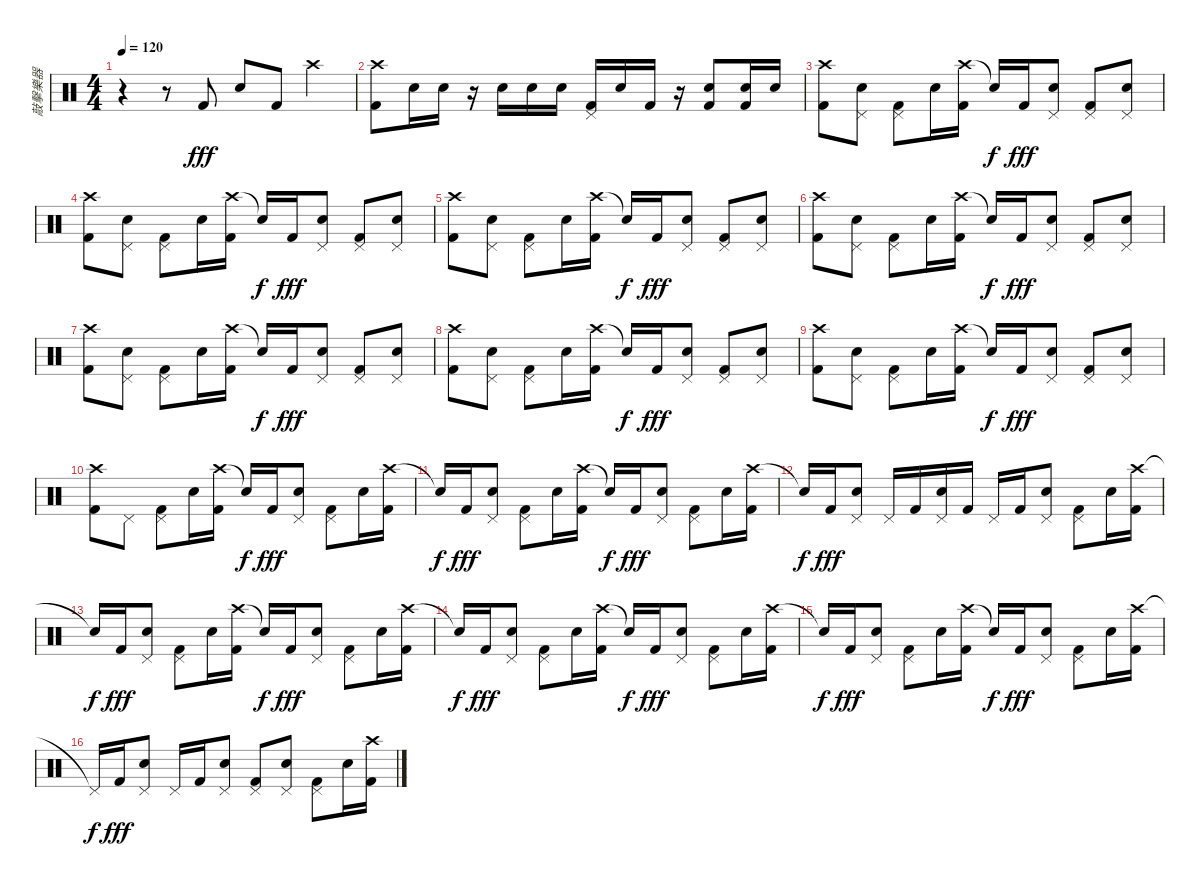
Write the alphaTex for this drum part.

\track ("敲擊樂器" "敲擊樂器") {instrument percussion}
\staff {score}
\articulation defaults
\ts (4 4)
\tempo 120
\clef neutral
\ks c
r.4{dy fff} r.8 "Kick (hit) 2".8 "Snare (hit) 2".8 "Kick (hit) 2".8 "Crash high (hit)".4 |
("Crash high (hit)" "Kick (hit) 2").8 "Snare (hit) 2".16 "Snare (hit) 2".16 r.16 "Snare (hit) 2".16 "Snare (hit) 2".16 "Snare (hit) 2".16 ("Pedal Hi-Hat (hit)" "Kick (hit) 2").16 "Snare (hit) 2".16 "Kick (hit) 2".16 r.16 ("Snare (hit) 2" "Kick (hit) 2").8 ("Snare (hit) 2" "Kick (hit) 2").16 "Snare (hit) 2".16 |
("Crash high (hit)" "Kick (hit) 2").8 ("Pedal Hi-Hat (hit)" "Snare (hit) 2").8 ("Pedal Hi-Hat (hit)" "Kick (hit) 2").8 "Snare (hit) 2".16 ("Crash high (hit)" "Kick (hit) 2").16 "Snare (hit)"{t}.16{dy f} "Kick (hit) 2".16{dy fff} ("Pedal Hi-Hat (hit)" "Snare (hit) 2").8 ("Pedal Hi-Hat (hit)" "Kick (hit) 2").8 ("Pedal Hi-Hat (hit)" "Snare (hit) 2").8 |
("Crash high (hit)" "Kick (hit) 2").8 ("Pedal Hi-Hat (hit)" "Snare (hit) 2").8 ("Pedal Hi-Hat (hit)" "Kick (hit) 2").8 "Snare (hit) 2".16 ("Crash high (hit)" "Kick (hit) 2").16 "Snare (hit)"{t}.16{dy f} "Kick (hit) 2".16{dy fff} ("Pedal Hi-Hat (hit)" "Snare (hit) 2").8 ("Pedal Hi-Hat (hit)" "Kick (hit) 2").8 ("Pedal Hi-Hat (hit)" "Snare (hit) 2").8 |
("Crash high (hit)" "Kick (hit) 2").8 ("Pedal Hi-Hat (hit)" "Snare (hit) 2").8 ("Pedal Hi-Hat (hit)" "Kick (hit) 2").8 "Snare (hit) 2".16 ("Crash high (hit)" "Kick (hit) 2").16 "Snare (hit)"{t}.16{dy f} "Kick (hit) 2".16{dy fff} ("Pedal Hi-Hat (hit)" "Snare (hit) 2").8 ("Pedal Hi-Hat (hit)" "Kick (hit) 2").8 ("Pedal Hi-Hat (hit)" "Snare (hit) 2").8 |
("Crash high (hit)" "Kick (hit) 2").8 ("Pedal Hi-Hat (hit)" "Snare (hit) 2").8 ("Pedal Hi-Hat (hit)" "Kick (hit) 2").8 "Snare (hit) 2".16 ("Crash high (hit)" "Kick (hit) 2").16 "Snare (hit)"{t}.16{dy f} "Kick (hit) 2".16{dy fff} ("Pedal Hi-Hat (hit)" "Snare (hit) 2").8 ("Pedal Hi-Hat (hit)" "Kick (hit) 2").8 ("Pedal Hi-Hat (hit)" "Snare (hit) 2").8 |
("Crash high (hit)" "Kick (hit) 2").8 ("Pedal Hi-Hat (hit)" "Snare (hit) 2").8 ("Pedal Hi-Hat (hit)" "Kick (hit) 2").8 "Snare (hit) 2".16 ("Crash high (hit)" "Kick (hit) 2").16 "Snare (hit)"{t}.16{dy f} "Kick (hit) 2".16{dy fff} ("Pedal Hi-Hat (hit)" "Snare (hit) 2").8 ("Pedal Hi-Hat (hit)" "Kick (hit) 2").8 ("Pedal Hi-Hat (hit)" "Snare (hit) 2").8 |
("Crash high (hit)" "Kick (hit) 2").8 ("Pedal Hi-Hat (hit)" "Snare (hit) 2").8 ("Pedal Hi-Hat (hit)" "Kick (hit) 2").8 "Snare (hit) 2".16 ("Crash high (hit)" "Kick (hit) 2").16 "Snare (hit)"{t}.16{dy f} "Kick (hit) 2".16{dy fff} ("Pedal Hi-Hat (hit)" "Snare (hit) 2").8 ("Pedal Hi-Hat (hit)" "Kick (hit) 2").8 ("Pedal Hi-Hat (hit)" "Snare (hit) 2").8 |
("Crash high (hit)" "Kick (hit) 2").8 ("Pedal Hi-Hat (hit)" "Snare (hit) 2").8 ("Pedal Hi-Hat (hit)" "Kick (hit) 2").8 "Snare (hit) 2".16 ("Crash high (hit)" "Kick (hit) 2").16 "Snare (hit)"{t}.16{dy f} "Kick (hit) 2".16{dy fff} ("Pedal Hi-Hat (hit)" "Snare (hit) 2").8 ("Pedal Hi-Hat (hit)" "Kick (hit) 2").8 ("Pedal Hi-Hat (hit)" "Snare (hit) 2").8 |
("Crash high (hit)" "Kick (hit) 2").8 "Pedal Hi-Hat (hit)".8 ("Pedal Hi-Hat (hit)" "Kick (hit) 2").8 "Snare (hit) 2".16 ("Crash high (hit)" "Kick (hit) 2").16 "Snare (hit)"{t}.16{dy f} "Kick (hit) 2".16{dy fff} ("Pedal Hi-Hat (hit)" "Snare (hit) 2").8 ("Pedal Hi-Hat (hit)" "Kick (hit) 2").8 "Snare (hit) 2".16 ("Crash high (hit)" "Kick (hit) 2").16 |
"Snare (hit)"{t}.16{dy f} "Kick (hit) 2".16{dy fff} ("Pedal Hi-Hat (hit)" "Snare (hit) 2").8 ("Pedal Hi-Hat (hit)" "Kick (hit) 2").8 "Snare (hit) 2".16 ("Crash high (hit)" "Kick (hit) 2").16 "Snare (hit)"{t}.16{dy f} "Kick (hit) 2".16{dy fff} ("Pedal Hi-Hat (hit)" "Snare (hit) 2").8 ("Pedal Hi-Hat (hit)" "Kick (hit) 2").8 "Snare (hit) 2".16 ("Crash high (hit)" "Kick (hit) 2").16 |
"Snare (hit)"{t}.16{dy f} "Kick (hit) 2".16{dy fff} ("Pedal Hi-Hat (hit)" "Snare (hit) 2").8 "Pedal Hi-Hat (hit)".16 "Kick (hit) 2".16 ("Pedal Hi-Hat (hit)" "Snare (hit) 2").16 "Kick (hit) 2".16 "Pedal Hi-Hat (hit)".16 "Kick (hit) 2".16 ("Pedal Hi-Hat (hit)" "Snare (hit) 2").8 ("Pedal Hi-Hat (hit)" "Kick (hit) 2").8 "Snare (hit) 2".16 ("Crash high (hit)" "Kick (hit) 2").16 |
"Snare (hit)"{t}.16{dy f} "Kick (hit) 2".16{dy fff} ("Pedal Hi-Hat (hit)" "Snare (hit) 2").8 ("Pedal Hi-Hat (hit)" "Kick (hit) 2").8 "Snare (hit) 2".16 ("Crash high (hit)" "Kick (hit) 2").16 "Snare (hit)"{t}.16{dy f} "Kick (hit) 2".16{dy fff} ("Pedal Hi-Hat (hit)" "Snare (hit) 2").8 ("Pedal Hi-Hat (hit)" "Kick (hit) 2").8 "Snare (hit) 2".16 ("Crash high (hit)" "Kick (hit) 2").16 |
"Snare (hit)"{t}.16{dy f} "Kick (hit) 2".16{dy fff} ("Pedal Hi-Hat (hit)" "Snare (hit) 2").8 ("Pedal Hi-Hat (hit)" "Kick (hit) 2").8 "Snare (hit) 2".16 ("Crash high (hit)" "Kick (hit) 2").16 "Snare (hit)"{t}.16{dy f} "Kick (hit) 2".16{dy fff} ("Pedal Hi-Hat (hit)" "Snare (hit) 2").8 ("Pedal Hi-Hat (hit)" "Kick (hit) 2").8 "Snare (hit) 2".16 ("Crash high (hit)" "Kick (hit) 2").16 |
"Snare (hit)"{t}.16{dy f} "Kick (hit) 2".16{dy fff} ("Pedal Hi-Hat (hit)" "Snare (hit) 2").8 ("Pedal Hi-Hat (hit)" "Kick (hit) 2").8 "Snare (hit) 2".16 ("Crash high (hit)" "Kick (hit) 2").16 "Snare (hit)"{t}.16{dy f} "Kick (hit) 2".16{dy fff} ("Pedal Hi-Hat (hit)" "Snare (hit) 2").8 ("Pedal Hi-Hat (hit)" "Kick (hit) 2").8 "Snare (hit) 2".16 ("Crash high (hit)" "Kick (hit) 2").16 |
"Pedal Hi-Hat (hit)"{t}.16{dy f} "Kick (hit) 2".16{dy fff} ("Pedal Hi-Hat (hit)" "Snare (hit) 2").8 "Pedal Hi-Hat (hit)".16 "Kick (hit) 2".16 ("Pedal Hi-Hat (hit)" "Snare (hit) 2").8 ("Pedal Hi-Hat (hit)" "Kick (hit) 2").8 ("Pedal Hi-Hat (hit)" "Snare (hit) 2").8 ("Pedal Hi-Hat (hit)" "Kick (hit) 2").8 "Snare (hit) 2".16 ("Crash high (hit)" "Kick (hit) 2").16
